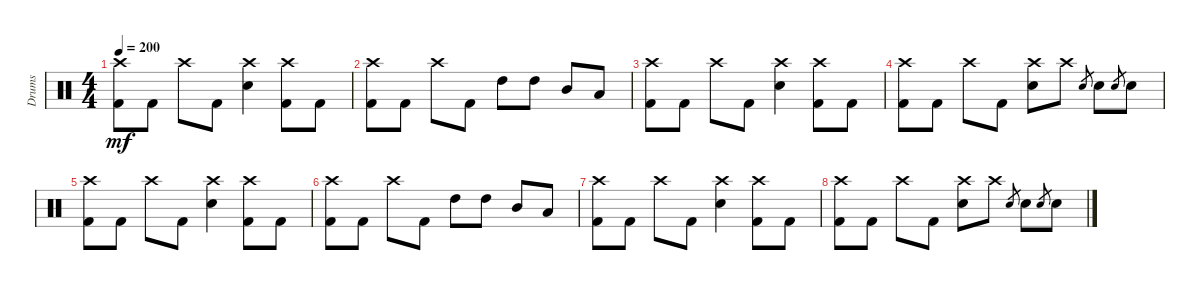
\track ("Drums" "Drums") {instrument percussion}
\staff {score}
\articulation defaults
\ts (4 4)
\tempo 200
\clef neutral
\ks c
("Crash high (hit)" "Kick (hit) 2").8{dy mf} "Kick (hit) 2".8 "Crash high (hit)".8 "Kick (hit) 2".8 ("Crash high (hit)" "Snare (hit) 2").4 ("Crash high (hit)" "Kick (hit) 2").8 "Kick (hit) 2".8 |
("Crash high (hit)" "Kick (hit) 2").8 "Kick (hit) 2".8 "Crash high (hit)".8 "Kick (hit) 2".8 "High Tom (hit)".8 "High Tom (hit)".8 "Mid Tom (hit)".8 "Low Tom (hit)".8 |
("Crash high (hit)" "Kick (hit) 2").8 "Kick (hit) 2".8 "Crash high (hit)".8 "Kick (hit) 2".8 ("Crash high (hit)" "Snare (hit) 2").4 ("Crash high (hit)" "Kick (hit) 2").8 "Kick (hit) 2".8 |
("Crash high (hit)" "Kick (hit) 2").8 "Kick (hit) 2".8 "Crash high (hit)".8 "Kick (hit) 2".8 ("Crash high (hit)" "Electric Snare (hit)").8 "Crash high (hit)".8 "Snare (hit) 2".8{gr} "Snare (hit) 2".8 "Snare (hit) 2".8{gr} "Snare (hit) 2".8 |
("Crash high (hit)" "Kick (hit) 2").8 "Kick (hit) 2".8 "Crash high (hit)".8 "Kick (hit) 2".8 ("Crash high (hit)" "Snare (hit) 2").4 ("Crash high (hit)" "Kick (hit) 2").8 "Kick (hit) 2".8 |
("Crash high (hit)" "Kick (hit) 2").8 "Kick (hit) 2".8 "Crash high (hit)".8 "Kick (hit) 2".8 "High Tom (hit)".8 "High Tom (hit)".8 "Mid Tom (hit)".8 "Low Tom (hit)".8 |
("Crash high (hit)" "Kick (hit) 2").8 "Kick (hit) 2".8 "Crash high (hit)".8 "Kick (hit) 2".8 ("Crash high (hit)" "Snare (hit) 2").4 ("Crash high (hit)" "Kick (hit) 2").8 "Kick (hit) 2".8 |
("Crash high (hit)" "Kick (hit) 2").8 "Kick (hit) 2".8 "Crash high (hit)".8 "Kick (hit) 2".8 ("Crash high (hit)" "Electric Snare (hit)").8 "Crash high (hit)".8 "Snare (hit) 2".8{gr} "Snare (hit) 2".8 "Snare (hit) 2".8{gr} "Snare (hit) 2".8
